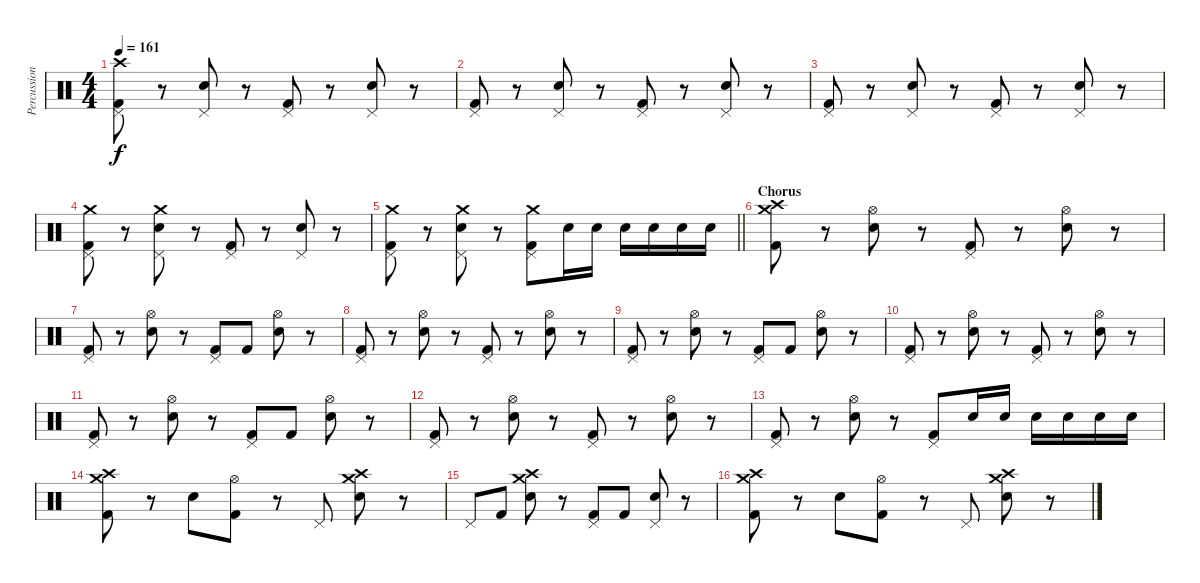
\track ("Percussion" "Percussion") {instrument percussion}
\staff {score}
\articulation defaults
\ts (4 4)
\tempo 161
\clef neutral
\ks c
("Crash high (hit)" "Pedal Hi-Hat (hit)" "Kick (hit) 2").8{dy f} r.8 ("Pedal Hi-Hat (hit)" "Electric Snare (hit)").8 r.8 ("Pedal Hi-Hat (hit)" "Kick (hit) 2").8 r.8 ("Pedal Hi-Hat (hit)" "Electric Snare (hit)").8 r.8 |
("Pedal Hi-Hat (hit)" "Kick (hit) 2").8 r.8 ("Pedal Hi-Hat (hit)" "Electric Snare (hit)").8 r.8 ("Pedal Hi-Hat (hit)" "Kick (hit) 2").8 r.8 ("Pedal Hi-Hat (hit)" "Electric Snare (hit)").8 r.8 |
("Pedal Hi-Hat (hit)" "Kick (hit) 2").8 r.8 ("Pedal Hi-Hat (hit)" "Electric Snare (hit)").8 r.8 ("Pedal Hi-Hat (hit)" "Kick (hit) 2").8 r.8 ("Pedal Hi-Hat (hit)" "Electric Snare (hit)").8 r.8 |
("Crash medium (hit)" "Pedal Hi-Hat (hit)" "Kick (hit) 2").8 r.8 ("Crash medium (hit)" "Pedal Hi-Hat (hit)" "Electric Snare (hit)").8 r.8 ("Pedal Hi-Hat (hit)" "Kick (hit) 2").8 r.8 ("Pedal Hi-Hat (hit)" "Electric Snare (hit)").8 r.8 |
\barLineRight lightlight
("Crash medium (hit)" "Pedal Hi-Hat (hit)" "Kick (hit) 2").8 r.8 ("Crash medium (hit)" "Pedal Hi-Hat (hit)" "Electric Snare (hit)").8 r.8 ("Crash medium (hit)" "Pedal Hi-Hat (hit)" "Kick (hit) 2").8 "Electric Snare (hit)".16 "Electric Snare (hit)".16 "Electric Snare (hit)".16 "Electric Snare (hit)".16 "Electric Snare (hit)".16 "Electric Snare (hit)".16 |
\section ("" "Chorus")
("Crash high (hit)" "Crash medium (hit)" "Kick (hit) 2").8 r.8 ("Hi-Hat (open)" "Electric Snare (hit)").8 r.8 ("Pedal Hi-Hat (hit)" "Kick (hit) 2").8 r.8 ("Hi-Hat (open)" "Electric Snare (hit)").8 r.8 |
("Pedal Hi-Hat (hit)" "Kick (hit) 2").8 r.8 ("Hi-Hat (open)" "Electric Snare (hit)").8 r.8 ("Pedal Hi-Hat (hit)" "Kick (hit) 2").8 "Kick (hit) 2".8 ("Hi-Hat (open)" "Electric Snare (hit)").8 r.8 |
("Pedal Hi-Hat (hit)" "Kick (hit) 2").8 r.8 ("Hi-Hat (open)" "Electric Snare (hit)").8 r.8 ("Pedal Hi-Hat (hit)" "Kick (hit) 2").8 r.8 ("Hi-Hat (open)" "Electric Snare (hit)").8 r.8 |
("Pedal Hi-Hat (hit)" "Kick (hit) 2").8 r.8 ("Hi-Hat (open)" "Electric Snare (hit)").8 r.8 ("Pedal Hi-Hat (hit)" "Kick (hit) 2").8 "Kick (hit) 2".8 ("Hi-Hat (open)" "Electric Snare (hit)").8 r.8 |
("Pedal Hi-Hat (hit)" "Kick (hit) 2").8 r.8 ("Hi-Hat (open)" "Electric Snare (hit)").8 r.8 ("Pedal Hi-Hat (hit)" "Kick (hit) 2").8 r.8 ("Hi-Hat (open)" "Electric Snare (hit)").8 r.8 |
("Pedal Hi-Hat (hit)" "Kick (hit) 2").8 r.8 ("Hi-Hat (open)" "Electric Snare (hit)").8 r.8 ("Pedal Hi-Hat (hit)" "Kick (hit) 2").8 "Kick (hit) 2".8 ("Hi-Hat (open)" "Electric Snare (hit)").8 r.8 |
("Pedal Hi-Hat (hit)" "Kick (hit) 2").8 r.8 ("Hi-Hat (open)" "Electric Snare (hit)").8 r.8 ("Pedal Hi-Hat (hit)" "Kick (hit) 2").8 r.8 ("Hi-Hat (open)" "Electric Snare (hit)").8 r.8 |
("Pedal Hi-Hat (hit)" "Kick (hit) 2").8 r.8 ("Hi-Hat (open)" "Electric Snare (hit)").8 r.8 ("Pedal Hi-Hat (hit)" "Kick (hit) 2").8 "Electric Snare (hit)".16 "Electric Snare (hit)".16 "Electric Snare (hit)".16 "Electric Snare (hit)".16 "Electric Snare (hit)".16 "Electric Snare (hit)".16 |
("Crash high (hit)" "Crash medium (hit)" "Kick (hit) 2").8 r.8 "Electric Snare (hit)".8 ("Hi-Hat (open)" "Kick (hit) 2").8 r.8 "Pedal Hi-Hat (hit)".8 ("Crash high (hit)" "Crash medium (hit)" "Electric Snare (hit)").8 r.8 |
"Pedal Hi-Hat (hit)".8 "Kick (hit) 2".8 ("Crash medium (hit)" "Crash high (hit)" "Electric Snare (hit)").8 r.8 ("Pedal Hi-Hat (hit)" "Kick (hit) 2").8 "Kick (hit) 2".8 ("Pedal Hi-Hat (hit)" "Electric Snare (hit)").8 r.8 |
("Crash high (hit)" "Crash medium (hit)" "Kick (hit) 2").8 r.8 "Electric Snare (hit)".8 ("Hi-Hat (open)" "Kick (hit) 2").8 r.8 "Pedal Hi-Hat (hit)".8 ("Crash high (hit)" "Crash medium (hit)" "Electric Snare (hit)").8 r.8
